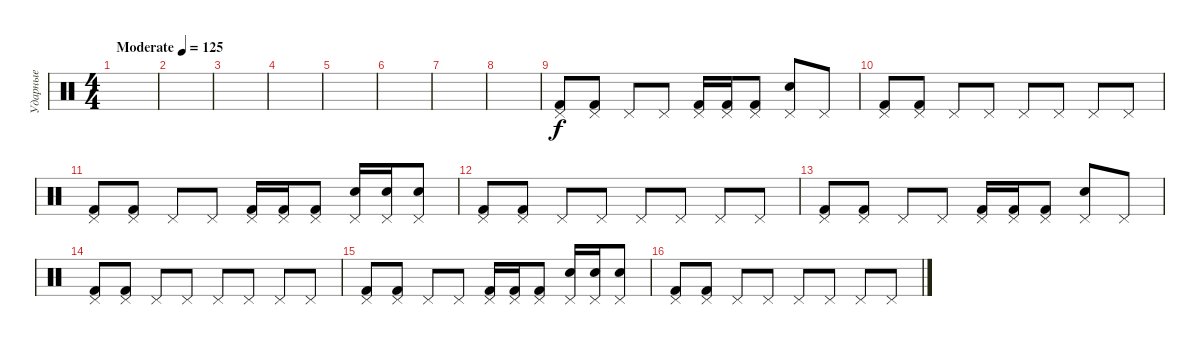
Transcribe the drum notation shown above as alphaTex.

\track ("Ударные" "Ударные") {instrument percussion}
\staff {score}
\articulation defaults
\ts (4 4)
\tempo (125 "Moderate")
\clef neutral
\ks c
|
|
|
|
|
|
|
|
("Pedal Hi-Hat (hit)" "Kick (hit) 2").8 ("Pedal Hi-Hat (hit)" "Kick (hit) 2").8 "Pedal Hi-Hat (hit)".8 "Pedal Hi-Hat (hit)".8 ("Pedal Hi-Hat (hit)" "Kick (hit) 2").16 ("Pedal Hi-Hat (hit)" "Kick (hit) 2").16 ("Pedal Hi-Hat (hit)" "Kick (hit) 2").8 ("Pedal Hi-Hat (hit)" "Electric Snare (hit)").8 "Pedal Hi-Hat (hit)".8 |
("Pedal Hi-Hat (hit)" "Kick (hit) 2").8 ("Pedal Hi-Hat (hit)" "Kick (hit) 2").8 "Pedal Hi-Hat (hit)".8 "Pedal Hi-Hat (hit)".8 "Pedal Hi-Hat (hit)".8 "Pedal Hi-Hat (hit)".8 "Pedal Hi-Hat (hit)".8 "Pedal Hi-Hat (hit)".8 |
("Pedal Hi-Hat (hit)" "Kick (hit) 2").8 ("Pedal Hi-Hat (hit)" "Kick (hit) 2").8 "Pedal Hi-Hat (hit)".8 "Pedal Hi-Hat (hit)".8 ("Pedal Hi-Hat (hit)" "Kick (hit) 2").16 ("Pedal Hi-Hat (hit)" "Kick (hit) 2").16 ("Pedal Hi-Hat (hit)" "Kick (hit) 2").8 ("Pedal Hi-Hat (hit)" "Electric Snare (hit)").16 ("Pedal Hi-Hat (hit)" "Electric Snare (hit)").16 ("Pedal Hi-Hat (hit)" "Electric Snare (hit)").8 |
("Pedal Hi-Hat (hit)" "Kick (hit) 2").8 ("Pedal Hi-Hat (hit)" "Kick (hit) 2").8 "Pedal Hi-Hat (hit)".8 "Pedal Hi-Hat (hit)".8 "Pedal Hi-Hat (hit)".8 "Pedal Hi-Hat (hit)".8 "Pedal Hi-Hat (hit)".8 "Pedal Hi-Hat (hit)".8 |
("Pedal Hi-Hat (hit)" "Kick (hit) 2").8 ("Pedal Hi-Hat (hit)" "Kick (hit) 2").8 "Pedal Hi-Hat (hit)".8 "Pedal Hi-Hat (hit)".8 ("Pedal Hi-Hat (hit)" "Kick (hit) 2").16 ("Pedal Hi-Hat (hit)" "Kick (hit) 2").16 ("Pedal Hi-Hat (hit)" "Kick (hit) 2").8 ("Pedal Hi-Hat (hit)" "Electric Snare (hit)").8 "Pedal Hi-Hat (hit)".8 |
("Pedal Hi-Hat (hit)" "Kick (hit) 2").8 ("Pedal Hi-Hat (hit)" "Kick (hit) 2").8 "Pedal Hi-Hat (hit)".8 "Pedal Hi-Hat (hit)".8 "Pedal Hi-Hat (hit)".8 "Pedal Hi-Hat (hit)".8 "Pedal Hi-Hat (hit)".8 "Pedal Hi-Hat (hit)".8 |
("Pedal Hi-Hat (hit)" "Kick (hit) 2").8 ("Pedal Hi-Hat (hit)" "Kick (hit) 2").8 "Pedal Hi-Hat (hit)".8 "Pedal Hi-Hat (hit)".8 ("Pedal Hi-Hat (hit)" "Kick (hit) 2").16 ("Pedal Hi-Hat (hit)" "Kick (hit) 2").16 ("Pedal Hi-Hat (hit)" "Kick (hit) 2").8 ("Pedal Hi-Hat (hit)" "Electric Snare (hit)").16 ("Pedal Hi-Hat (hit)" "Electric Snare (hit)").16 ("Pedal Hi-Hat (hit)" "Electric Snare (hit)").8 |
("Pedal Hi-Hat (hit)" "Kick (hit) 2").8 ("Pedal Hi-Hat (hit)" "Kick (hit) 2").8 "Pedal Hi-Hat (hit)".8 "Pedal Hi-Hat (hit)".8 "Pedal Hi-Hat (hit)".8 "Pedal Hi-Hat (hit)".8 "Pedal Hi-Hat (hit)".8 "Pedal Hi-Hat (hit)".8
